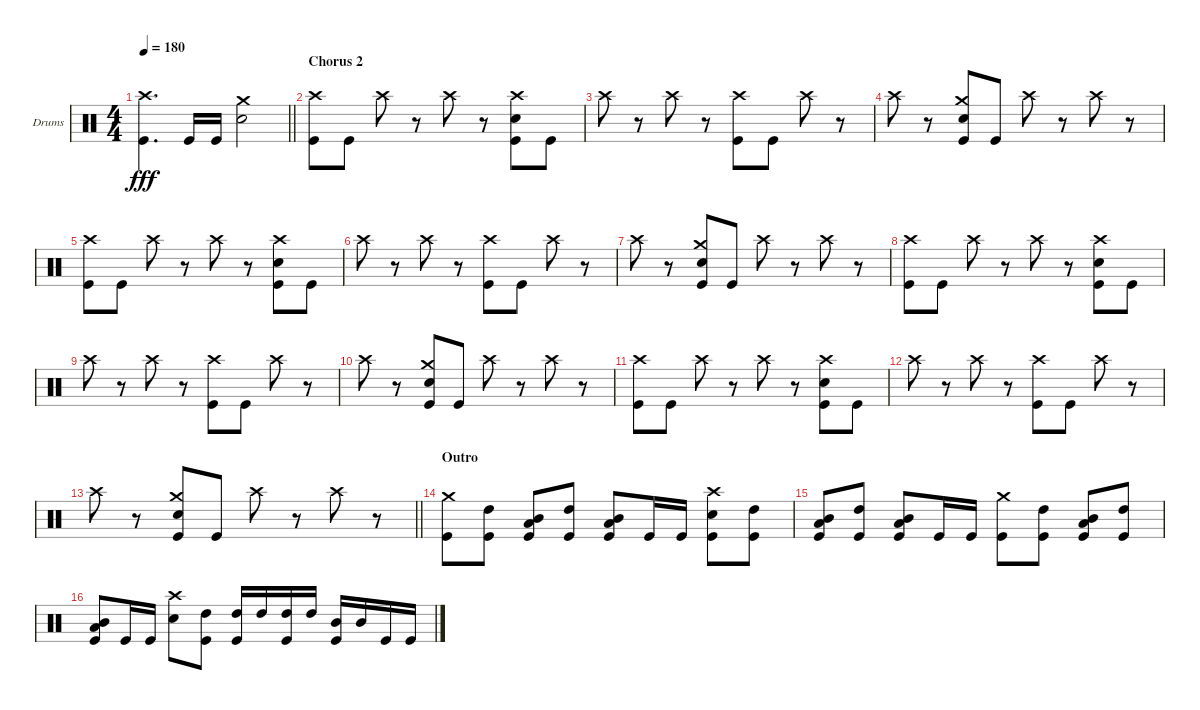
\bracketExtendMode groupsimilarinstruments
\firstSystemTrackNameOrientation horizontal
\otherSystemsTrackNameOrientation horizontal
\track ("Drumkit" "Drums") {instrument percussion}
\staff {score}
\articulation defaults
\ts (4 4)
\tempo 180
\clef neutral
\barLineRight lightlight
\ks c
("Crash high (hit)" "Kick (hit)").4{d dy fff} "Kick (hit)".16 "Kick (hit)".16 ("Crash medium (hit)" "Snare (hit) 2").2 |
\section ("" "Chorus 2")
("Crash high (hit)" "Kick (hit)").8 "Kick (hit)".8 "Crash high (hit)".8 r.8 "Crash high (hit)".8 r.8 ("Crash high (hit)" "Snare (hit) 2" "Kick (hit)").8 "Kick (hit)".8 |
"Crash high (hit)".8 r.8 "Crash high (hit)".8 r.8 ("Crash high (hit)" "Kick (hit)").8 "Kick (hit)".8 "Crash high (hit)".8 r.8 |
"Crash high (hit)".8 r.8 ("Crash medium (hit)" "Snare (hit) 2" "Kick (hit)").8 "Kick (hit)".8 "Crash high (hit)".8 r.8 "Crash high (hit)".8 r.8 |
("Crash high (hit)" "Kick (hit)").8 "Kick (hit)".8 "Crash high (hit)".8 r.8 "Crash high (hit)".8 r.8 ("Crash high (hit)" "Snare (hit) 2" "Kick (hit)").8 "Kick (hit)".8 |
"Crash high (hit)".8 r.8 "Crash high (hit)".8 r.8 ("Crash high (hit)" "Kick (hit)").8 "Kick (hit)".8 "Crash high (hit)".8 r.8 |
"Crash high (hit)".8 r.8 ("Crash medium (hit)" "Snare (hit) 2" "Kick (hit)").8 "Kick (hit)".8 "Crash high (hit)".8 r.8 "Crash high (hit)".8 r.8 |
("Crash high (hit)" "Kick (hit)").8 "Kick (hit)".8 "Crash high (hit)".8 r.8 "Crash high (hit)".8 r.8 ("Crash high (hit)" "Snare (hit) 2" "Kick (hit)").8 "Kick (hit)".8 |
"Crash high (hit)".8 r.8 "Crash high (hit)".8 r.8 ("Crash high (hit)" "Kick (hit)").8 "Kick (hit)".8 "Crash high (hit)".8 r.8 |
"Crash high (hit)".8 r.8 ("Crash medium (hit)" "Snare (hit) 2" "Kick (hit)").8 "Kick (hit)".8 "Crash high (hit)".8 r.8 "Crash high (hit)".8 r.8 |
("Crash high (hit)" "Kick (hit)").8 "Kick (hit)".8 "Crash high (hit)".8 r.8 "Crash high (hit)".8 r.8 ("Crash high (hit)" "Snare (hit) 2" "Kick (hit)").8 "Kick (hit)".8 |
"Crash high (hit)".8 r.8 "Crash high (hit)".8 r.8 ("Crash high (hit)" "Kick (hit)").8 "Kick (hit)".8 "Crash high (hit)".8 r.8 |
\barLineRight lightlight "Crash high (hit)".8
r.8 ("Crash medium (hit)" "Snare (hit) 2" "Kick (hit)").8 "Kick (hit)".8 "Crash high (hit)".8 r.8 "Crash high (hit)".8 r.8 |
\section ("" "Outro ")
("Crash medium (hit)" "Kick (hit)").8 ("High Tom (hit)" "Kick (hit)").8 ("Low Tom (hit)" "Mid Tom (hit)" "Kick (hit)").8 ("High Tom (hit)" "Kick (hit)").8 ("Low Tom (hit)" "Mid Tom (hit)" "Kick (hit)").8 "Kick (hit)".16 "Kick (hit)".16 ("Crash high (hit)" "Snare (hit) 2" "Kick (hit)").8 ("High Tom (hit)" "Kick (hit)").8 |
("Low Tom (hit)" "Mid Tom (hit)" "Kick (hit)").8 ("High Tom (hit)" "Kick (hit)").8 ("Low Tom (hit)" "Mid Tom (hit)" "Kick (hit)").8 "Kick (hit)".16 "Kick (hit)".16 ("Crash medium (hit)" "Kick (hit)").8 ("High Tom (hit)" "Kick (hit)").8 ("Mid Tom (hit)" "Low Tom (hit)" "Kick (hit)").8 ("High Tom (hit)" "Kick (hit)").8 |
("Mid Tom (hit)" "Low Tom (hit)" "Kick (hit)").8 "Kick (hit)".16 "Kick (hit)".16 ("Crash high (hit)" "Snare (hit) 2").8 ("High Tom (hit)" "Kick (hit)").8 ("High Tom (hit)" "Kick (hit)").16 "High Tom (hit)".16 ("High Tom (hit)" "Kick (hit)").16 "High Tom (hit)".16 ("Mid Tom (hit)" "Kick (hit)").16 "Mid Tom (hit)".16 "Kick (hit)".16 "Kick (hit)".16
